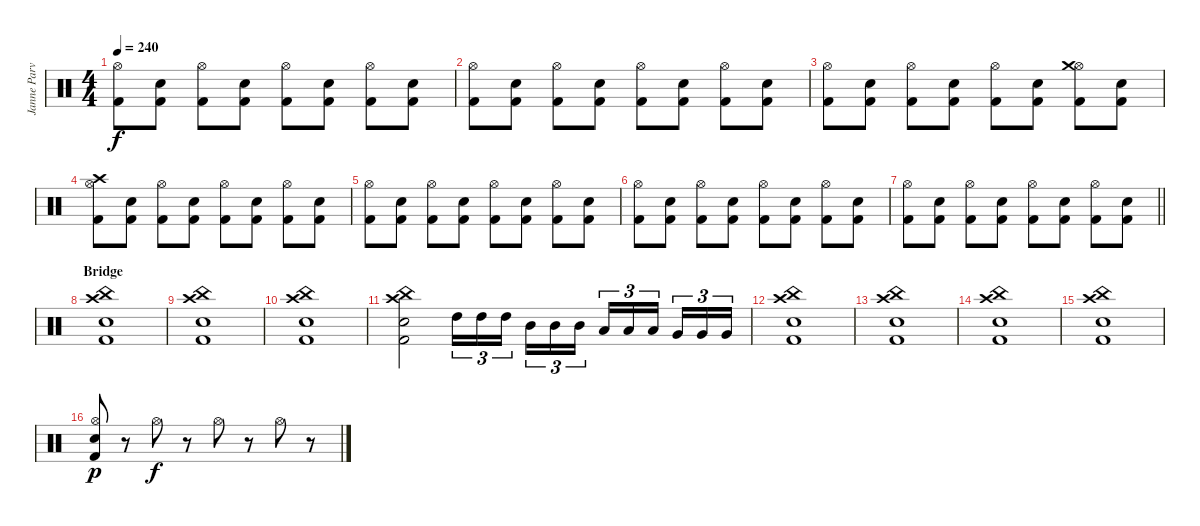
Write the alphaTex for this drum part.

\track ("Janne Parviainen" "Janne Parv") {instrument percussion}
\staff {score}
\articulation defaults
\ts (4 4)
\tempo 240
\clef neutral
\ks c
("Kick (hit) 2" "Hi-Hat (open)").8{dy f} ("Electric Snare (hit)" "Kick (hit) 2").8 ("Kick (hit) 2" "Hi-Hat (open)").8 ("Electric Snare (hit)" "Kick (hit) 2").8 ("Kick (hit) 2" "Hi-Hat (open)").8 ("Electric Snare (hit)" "Kick (hit) 2").8 ("Kick (hit) 2" "Hi-Hat (open)").8 ("Electric Snare (hit)" "Kick (hit) 2").8 |
("Kick (hit) 2" "Hi-Hat (open)").8 ("Electric Snare (hit)" "Kick (hit) 2").8 ("Kick (hit) 2" "Hi-Hat (open)").8 ("Electric Snare (hit)" "Kick (hit) 2").8 ("Kick (hit) 2" "Hi-Hat (open)").8 ("Electric Snare (hit)" "Kick (hit) 2").8 ("Kick (hit) 2" "Hi-Hat (open)").8 ("Electric Snare (hit)" "Kick (hit) 2").8 |
("Kick (hit) 2" "Hi-Hat (open)").8 ("Electric Snare (hit)" "Kick (hit) 2").8 ("Kick (hit) 2" "Hi-Hat (open)").8 ("Electric Snare (hit)" "Kick (hit) 2").8 ("Kick (hit) 2" "Hi-Hat (open)").8 ("Electric Snare (hit)" "Kick (hit) 2").8 ("Kick (hit) 2" "Hi-Hat (open)" "Crash medium (hit)").8 ("Electric Snare (hit)" "Kick (hit) 2").8 |
("Kick (hit) 2" "Hi-Hat (open)" "Crash high (hit)").8 ("Electric Snare (hit)" "Kick (hit) 2").8 ("Kick (hit) 2" "Hi-Hat (open)").8 ("Electric Snare (hit)" "Kick (hit) 2").8 ("Kick (hit) 2" "Hi-Hat (open)").8 ("Electric Snare (hit)" "Kick (hit) 2").8 ("Kick (hit) 2" "Hi-Hat (open)").8 ("Electric Snare (hit)" "Kick (hit) 2").8 |
("Kick (hit) 2" "Hi-Hat (open)").8 ("Electric Snare (hit)" "Kick (hit) 2").8 ("Kick (hit) 2" "Hi-Hat (open)").8 ("Electric Snare (hit)" "Kick (hit) 2").8 ("Kick (hit) 2" "Hi-Hat (open)").8 ("Electric Snare (hit)" "Kick (hit) 2").8 ("Kick (hit) 2" "Hi-Hat (open)").8 ("Electric Snare (hit)" "Kick (hit) 2").8 |
("Kick (hit) 2" "Hi-Hat (open)").8 ("Electric Snare (hit)" "Kick (hit) 2").8 ("Kick (hit) 2" "Hi-Hat (open)").8 ("Electric Snare (hit)" "Kick (hit) 2").8 ("Kick (hit) 2" "Hi-Hat (open)").8 ("Electric Snare (hit)" "Kick (hit) 2").8 ("Kick (hit) 2" "Hi-Hat (open)").8 ("Electric Snare (hit)" "Kick (hit) 2").8 |
\barLineRight lightlight
("Kick (hit) 2" "Hi-Hat (open)").8 ("Electric Snare (hit)" "Kick (hit) 2").8 ("Kick (hit) 2" "Hi-Hat (open)").8 ("Electric Snare (hit)" "Kick (hit) 2").8 ("Kick (hit) 2" "Hi-Hat (open)").8 ("Electric Snare (hit)" "Kick (hit) 2").8 ("Kick (hit) 2" "Hi-Hat (open)").8 ("Electric Snare (hit)" "Kick (hit) 2").8 |
\section ("" "Bridge")
("Kick (hit) 2" "Electric Snare (hit)" "Crash high (hit)" "China (hit)").1 |
("Kick (hit) 2" "Electric Snare (hit)" "Crash high (hit)" "China (hit)").1 |
("Kick (hit) 2" "Electric Snare (hit)" "Crash high (hit)" "China (hit)").1 |
("Kick (hit) 2" "Electric Snare (hit)" "Crash high (hit)" "China (hit)").2 "High Tom (hit)".16{tu (3 2)} "High Tom (hit)".16{tu (3 2)} "High Tom (hit)".16{tu (3 2) beam splitsecondary} "Mid Tom (hit)".16{tu (3 2)} "Mid Tom (hit)".16{tu (3 2)} "Mid Tom (hit)".16{tu (3 2)} "Low Tom (hit)".16{tu (3 2)} "Low Tom (hit)".16{tu (3 2)} "Low Tom (hit)".16{tu (3 2) beam splitsecondary} "Very Low Tom (hit)".16{tu (3 2)} "Very Low Tom (hit)".16{tu (3 2)} "Very Low Tom (hit)".16{tu (3 2)} |
("Kick (hit) 2" "Electric Snare (hit)" "Crash high (hit)" "China (hit)").1 |
("Kick (hit) 2" "Electric Snare (hit)" "Crash high (hit)" "China (hit)").1 |
("Kick (hit) 2" "Electric Snare (hit)" "Crash high (hit)" "China (hit)").1 |
("Kick (hit) 2" "Electric Snare (hit)" "Crash high (hit)" "China (hit)").1 |
("Kick (hit) 2" "Hi-Hat (open)" "Snare (hit) 2").8{dy p} r.8 "Hi-Hat (open)".8{dy f} r.8 "Hi-Hat (open)".8 r.8 "Hi-Hat (open)".8 r.8
